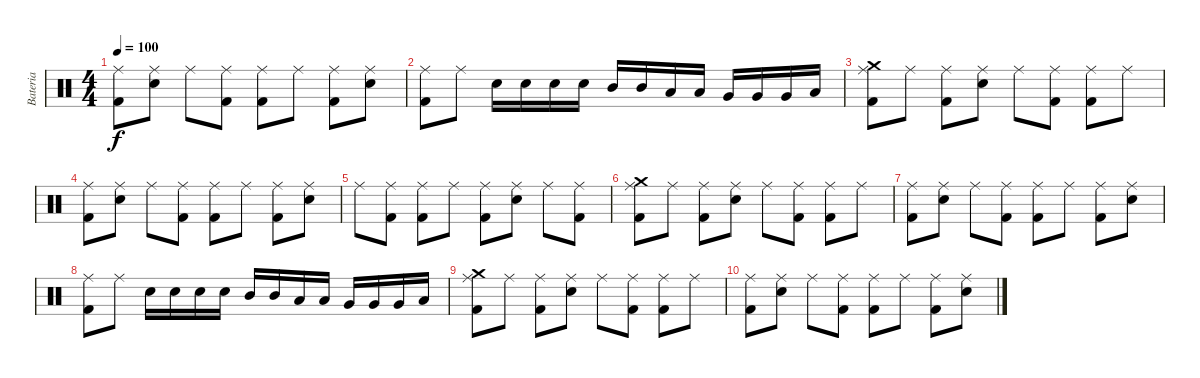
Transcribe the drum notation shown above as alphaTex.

\track ("Bateria" "Bateria") {instrument percussion}
\staff {score}
\articulation defaults
\ts (4 4)
\tempo 100
\clef neutral
\ks c
("Ride (middle)" "Kick (hit) 2").8{dy f} ("Ride (middle)" "Snare (hit) 2").8 "Ride (middle)".8 ("Ride (middle)" "Kick (hit) 2").8 ("Kick (hit) 2" "Ride (middle)").8 "Ride (middle)".8 ("Ride (middle)" "Kick (hit) 2").8 ("Ride (middle)" "Snare (hit) 2").8 |
("Ride (middle)" "Kick (hit) 2").8 "Ride (middle)".8 "Snare (hit) 2".16 "Snare (hit) 2".16 "Snare (hit) 2".16 "Snare (hit) 2".16 "Mid Tom (hit)".16 "Mid Tom (hit)".16 "Low Tom (hit)".16 "Low Tom (hit)".16 "Very Low Tom (hit)".16 "Very Low Tom (hit)".16 "Very Low Tom (hit)".16 "Low Floor Tom (hit)".16 |
("Crash medium (hit)" "Ride (middle)" "Kick (hit) 2").8 "Ride (middle)".8 ("Kick (hit) 2" "Ride (middle)").8 ("Ride (middle)" "Snare (hit) 2").8 "Ride (middle)".8 ("Ride (middle)" "Kick (hit) 2").8 ("Ride (middle)" "Kick (hit) 2").8 "Ride (middle)".8 |
("Ride (middle)" "Kick (hit) 2").8 ("Ride (middle)" "Snare (hit) 2").8 "Ride (middle)".8 ("Ride (middle)" "Kick (hit) 2").8 ("Kick (hit) 2" "Ride (middle)").8 "Ride (middle)".8 ("Ride (middle)" "Kick (hit) 2").8 ("Ride (middle)" "Snare (hit) 2").8 |
"Ride (middle)".8 ("Ride (middle)" "Kick (hit) 2").8 ("Kick (hit) 2" "Ride (middle)").8 "Ride (middle)".8 ("Kick (hit) 2" "Ride (middle)").8 ("Ride (middle)" "Snare (hit) 2").8 "Ride (middle)".8 ("Ride (middle)" "Kick (hit) 2").8 |
("Crash medium (hit)" "Ride (middle)" "Kick (hit) 2").8 "Ride (middle)".8 ("Kick (hit) 2" "Ride (middle)").8 ("Ride (middle)" "Snare (hit) 2").8 "Ride (middle)".8 ("Ride (middle)" "Kick (hit) 2").8 ("Ride (middle)" "Kick (hit) 2").8 "Ride (middle)".8 |
("Ride (middle)" "Kick (hit) 2").8 ("Ride (middle)" "Snare (hit) 2").8 "Ride (middle)".8 ("Ride (middle)" "Kick (hit) 2").8 ("Kick (hit) 2" "Ride (middle)").8 "Ride (middle)".8 ("Ride (middle)" "Kick (hit) 2").8 ("Ride (middle)" "Snare (hit) 2").8 |
("Ride (middle)" "Kick (hit) 2").8 "Ride (middle)".8 "Snare (hit) 2".16 "Snare (hit) 2".16 "Snare (hit) 2".16 "Snare (hit) 2".16 "Mid Tom (hit)".16 "Mid Tom (hit)".16 "Low Tom (hit)".16 "Low Tom (hit)".16 "Very Low Tom (hit)".16 "Very Low Tom (hit)".16 "Very Low Tom (hit)".16 "Low Floor Tom (hit)".16 |
("Crash medium (hit)" "Ride (middle)" "Kick (hit) 2").8 "Ride (middle)".8 ("Kick (hit) 2" "Ride (middle)").8 ("Ride (middle)" "Snare (hit) 2").8 "Ride (middle)".8 ("Ride (middle)" "Kick (hit) 2").8 ("Ride (middle)" "Kick (hit) 2").8 "Ride (middle)".8 |
("Ride (middle)" "Kick (hit) 2").8 ("Ride (middle)" "Snare (hit) 2").8 "Ride (middle)".8 ("Ride (middle)" "Kick (hit) 2").8 ("Kick (hit) 2" "Ride (middle)").8 "Ride (middle)".8 ("Ride (middle)" "Kick (hit) 2").8 ("Ride (middle)" "Snare (hit) 2").8
